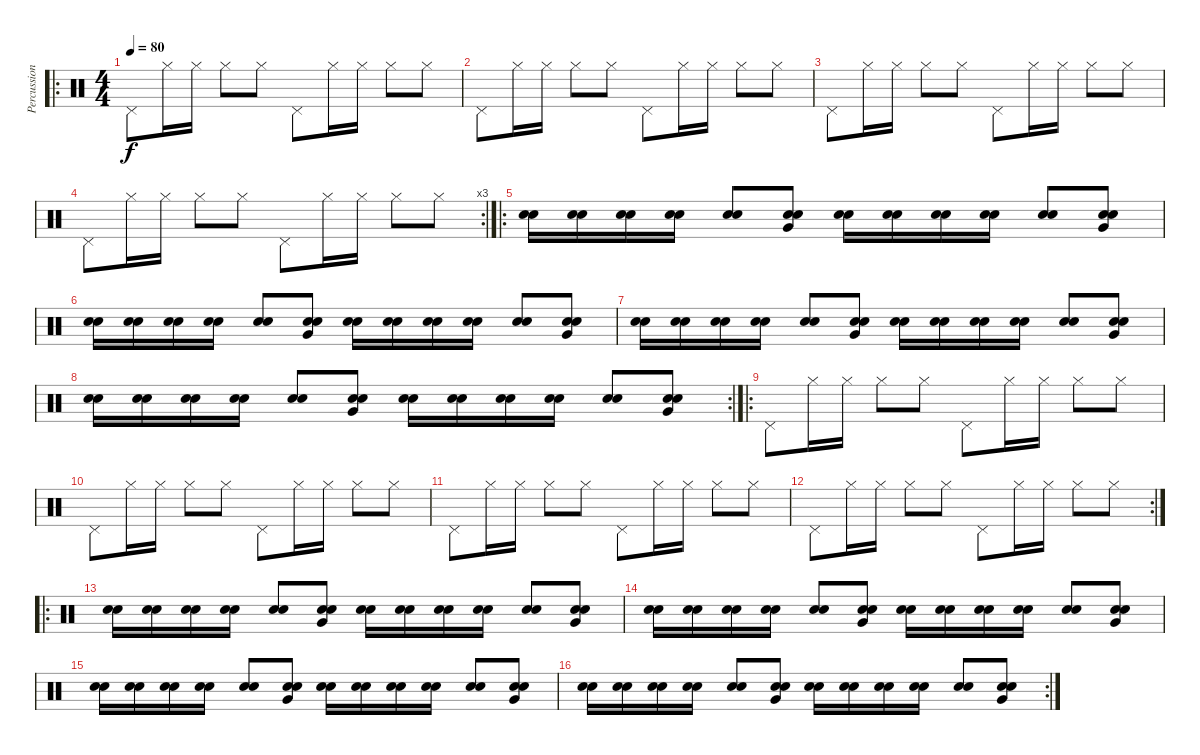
\track ("Percussions" "Percussion") {instrument percussion}
\staff {score}
\articulation defaults
\ro
\ts (4 4)
\tempo 80
\clef neutral
\ks c "Pedal Hi-Hat (hit)".8{dy f} "Hi-Hat (closed)".16 "Hi-Hat (closed)".16 "Hi-Hat (closed)".8 "Hi-Hat (closed)".8 "Pedal Hi-Hat (hit)".8 "Hi-Hat (closed)".16 "Hi-Hat (closed)".16 "Hi-Hat (closed)".8 "Hi-Hat (closed)".8
|
"Pedal Hi-Hat (hit)".8 "Hi-Hat (closed)".16 "Hi-Hat (closed)".16 "Hi-Hat (closed)".8 "Hi-Hat (closed)".8 "Pedal Hi-Hat (hit)".8 "Hi-Hat (closed)".16 "Hi-Hat (closed)".16 "Hi-Hat (closed)".8 "Hi-Hat (closed)".8 |
"Pedal Hi-Hat (hit)".8 "Hi-Hat (closed)".16 "Hi-Hat (closed)".16 "Hi-Hat (closed)".8 "Hi-Hat (closed)".8 "Pedal Hi-Hat (hit)".8 "Hi-Hat (closed)".16 "Hi-Hat (closed)".16 "Hi-Hat (closed)".8 "Hi-Hat (closed)".8 |
\rc 3 "Pedal Hi-Hat (hit)".8 "Hi-Hat (closed)".16 "Hi-Hat (closed)".16 "Hi-Hat (closed)".8 "Hi-Hat (closed)".8 "Pedal Hi-Hat (hit)".8 "Hi-Hat (closed)".16 "Hi-Hat (closed)".16 "Hi-Hat (closed)".8 "Hi-Hat (closed)".8
|
\ro
("Electric Snare (hit)" "Electric Snare (hit)").16 ("Electric Snare (hit)" "Electric Snare (hit)").16 ("Electric Snare (hit)" "Electric Snare (hit)").16 ("Electric Snare (hit)" "Electric Snare (hit)").16 ("Electric Snare (hit)" "Electric Snare (hit)").8 ("Electric Snare (hit)" "Electric Snare (hit)" "Very Low Tom (hit)").8 ("Electric Snare (hit)" "Electric Snare (hit)").16 ("Electric Snare (hit)" "Electric Snare (hit)").16 ("Electric Snare (hit)" "Electric Snare (hit)").16 ("Electric Snare (hit)" "Electric Snare (hit)").16 ("Electric Snare (hit)" "Electric Snare (hit)").8 ("Electric Snare (hit)" "Electric Snare (hit)" "Very Low Tom (hit)").8 |
("Electric Snare (hit)" "Electric Snare (hit)").16 ("Electric Snare (hit)" "Electric Snare (hit)").16 ("Electric Snare (hit)" "Electric Snare (hit)").16 ("Electric Snare (hit)" "Electric Snare (hit)").16 ("Electric Snare (hit)" "Electric Snare (hit)").8 ("Electric Snare (hit)" "Electric Snare (hit)" "Very Low Tom (hit)").8 ("Electric Snare (hit)" "Electric Snare (hit)").16 ("Electric Snare (hit)" "Electric Snare (hit)").16 ("Electric Snare (hit)" "Electric Snare (hit)").16 ("Electric Snare (hit)" "Electric Snare (hit)").16 ("Electric Snare (hit)" "Electric Snare (hit)").8 ("Electric Snare (hit)" "Electric Snare (hit)" "Very Low Tom (hit)").8 |
("Electric Snare (hit)" "Electric Snare (hit)").16 ("Electric Snare (hit)" "Electric Snare (hit)").16 ("Electric Snare (hit)" "Electric Snare (hit)").16 ("Electric Snare (hit)" "Electric Snare (hit)").16 ("Electric Snare (hit)" "Electric Snare (hit)").8 ("Electric Snare (hit)" "Electric Snare (hit)" "Very Low Tom (hit)").8 ("Electric Snare (hit)" "Electric Snare (hit)").16 ("Electric Snare (hit)" "Electric Snare (hit)").16 ("Electric Snare (hit)" "Electric Snare (hit)").16 ("Electric Snare (hit)" "Electric Snare (hit)").16 ("Electric Snare (hit)" "Electric Snare (hit)").8 ("Electric Snare (hit)" "Electric Snare (hit)" "Very Low Tom (hit)").8 |
\rc 2
("Electric Snare (hit)" "Electric Snare (hit)").16 ("Electric Snare (hit)" "Electric Snare (hit)").16 ("Electric Snare (hit)" "Electric Snare (hit)").16 ("Electric Snare (hit)" "Electric Snare (hit)").16 ("Electric Snare (hit)" "Electric Snare (hit)").8 ("Electric Snare (hit)" "Electric Snare (hit)" "Very Low Tom (hit)").8 ("Electric Snare (hit)" "Electric Snare (hit)").16 ("Electric Snare (hit)" "Electric Snare (hit)").16 ("Electric Snare (hit)" "Electric Snare (hit)").16 ("Electric Snare (hit)" "Electric Snare (hit)").16 ("Electric Snare (hit)" "Electric Snare (hit)").8 ("Electric Snare (hit)" "Electric Snare (hit)" "Very Low Tom (hit)").8 |
\ro "Pedal Hi-Hat (hit)".8 "Hi-Hat (closed)".16 "Hi-Hat (closed)".16 "Hi-Hat (closed)".8 "Hi-Hat (closed)".8 "Pedal Hi-Hat (hit)".8 "Hi-Hat (closed)".16 "Hi-Hat (closed)".16 "Hi-Hat (closed)".8 "Hi-Hat (closed)".8
|
"Pedal Hi-Hat (hit)".8 "Hi-Hat (closed)".16 "Hi-Hat (closed)".16 "Hi-Hat (closed)".8 "Hi-Hat (closed)".8 "Pedal Hi-Hat (hit)".8 "Hi-Hat (closed)".16 "Hi-Hat (closed)".16 "Hi-Hat (closed)".8 "Hi-Hat (closed)".8 |
"Pedal Hi-Hat (hit)".8 "Hi-Hat (closed)".16 "Hi-Hat (closed)".16 "Hi-Hat (closed)".8 "Hi-Hat (closed)".8 "Pedal Hi-Hat (hit)".8 "Hi-Hat (closed)".16 "Hi-Hat (closed)".16 "Hi-Hat (closed)".8 "Hi-Hat (closed)".8 |
\rc 2 "Pedal Hi-Hat (hit)".8 "Hi-Hat (closed)".16 "Hi-Hat (closed)".16 "Hi-Hat (closed)".8 "Hi-Hat (closed)".8 "Pedal Hi-Hat (hit)".8 "Hi-Hat (closed)".16 "Hi-Hat (closed)".16 "Hi-Hat (closed)".8 "Hi-Hat (closed)".8
|
\ro
("Electric Snare (hit)" "Electric Snare (hit)").16 ("Electric Snare (hit)" "Electric Snare (hit)").16 ("Electric Snare (hit)" "Electric Snare (hit)").16 ("Electric Snare (hit)" "Electric Snare (hit)").16 ("Electric Snare (hit)" "Electric Snare (hit)").8 ("Electric Snare (hit)" "Electric Snare (hit)" "Very Low Tom (hit)").8 ("Electric Snare (hit)" "Electric Snare (hit)").16 ("Electric Snare (hit)" "Electric Snare (hit)").16 ("Electric Snare (hit)" "Electric Snare (hit)").16 ("Electric Snare (hit)" "Electric Snare (hit)").16 ("Electric Snare (hit)" "Electric Snare (hit)").8 ("Electric Snare (hit)" "Electric Snare (hit)" "Very Low Tom (hit)").8 |
("Electric Snare (hit)" "Electric Snare (hit)").16 ("Electric Snare (hit)" "Electric Snare (hit)").16 ("Electric Snare (hit)" "Electric Snare (hit)").16 ("Electric Snare (hit)" "Electric Snare (hit)").16 ("Electric Snare (hit)" "Electric Snare (hit)").8 ("Electric Snare (hit)" "Electric Snare (hit)" "Very Low Tom (hit)").8 ("Electric Snare (hit)" "Electric Snare (hit)").16 ("Electric Snare (hit)" "Electric Snare (hit)").16 ("Electric Snare (hit)" "Electric Snare (hit)").16 ("Electric Snare (hit)" "Electric Snare (hit)").16 ("Electric Snare (hit)" "Electric Snare (hit)").8 ("Electric Snare (hit)" "Electric Snare (hit)" "Very Low Tom (hit)").8 |
("Electric Snare (hit)" "Electric Snare (hit)").16 ("Electric Snare (hit)" "Electric Snare (hit)").16 ("Electric Snare (hit)" "Electric Snare (hit)").16 ("Electric Snare (hit)" "Electric Snare (hit)").16 ("Electric Snare (hit)" "Electric Snare (hit)").8 ("Electric Snare (hit)" "Electric Snare (hit)" "Very Low Tom (hit)").8 ("Electric Snare (hit)" "Electric Snare (hit)").16 ("Electric Snare (hit)" "Electric Snare (hit)").16 ("Electric Snare (hit)" "Electric Snare (hit)").16 ("Electric Snare (hit)" "Electric Snare (hit)").16 ("Electric Snare (hit)" "Electric Snare (hit)").8 ("Electric Snare (hit)" "Electric Snare (hit)" "Very Low Tom (hit)").8 |
\rc 2
("Electric Snare (hit)" "Electric Snare (hit)").16 ("Electric Snare (hit)" "Electric Snare (hit)").16 ("Electric Snare (hit)" "Electric Snare (hit)").16 ("Electric Snare (hit)" "Electric Snare (hit)").16 ("Electric Snare (hit)" "Electric Snare (hit)").8 ("Electric Snare (hit)" "Electric Snare (hit)" "Very Low Tom (hit)").8 ("Electric Snare (hit)" "Electric Snare (hit)").16 ("Electric Snare (hit)" "Electric Snare (hit)").16 ("Electric Snare (hit)" "Electric Snare (hit)").16 ("Electric Snare (hit)" "Electric Snare (hit)").16 ("Electric Snare (hit)" "Electric Snare (hit)").8 ("Electric Snare (hit)" "Electric Snare (hit)" "Very Low Tom (hit)").8
